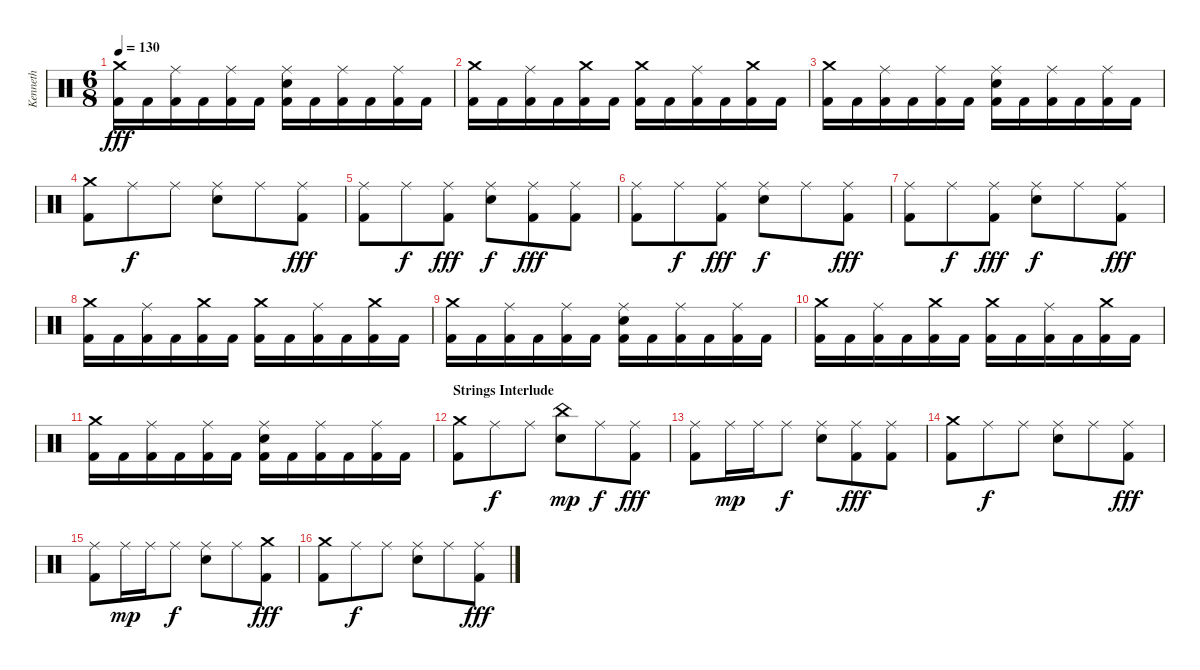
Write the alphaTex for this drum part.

\track ("Kenneth" "Kenneth") {instrument percussion}
\staff {score}
\articulation defaults
\ts (6 8)
\tempo 130
\clef neutral
\ks c
("Crash medium (hit)" "Kick (hit) 2").16{dy fff} "Kick (hit) 2".16 ("Ride (middle)" "Kick (hit) 2").16 "Kick (hit) 2".16 ("Ride (middle)" "Kick (hit) 2").16 "Kick (hit) 2".16 ("Ride (middle)" "Snare (hit) 2" "Kick (hit) 2").16 "Kick (hit) 2".16 ("Ride (middle)" "Kick (hit) 2").16 "Kick (hit) 2".16 ("Ride (middle)" "Kick (hit) 2").16 "Kick (hit) 2".16 |
("Crash medium (hit)" "Kick (hit) 2").16 "Kick (hit) 2".16 ("Ride (middle)" "Kick (hit) 2").16 "Kick (hit) 2".16 ("Crash medium (hit)" "Kick (hit) 2").16 "Kick (hit) 2".16 ("Crash medium (hit)" "Kick (hit) 2").16 "Kick (hit) 2".16 ("Ride (middle)" "Kick (hit) 2").16 "Kick (hit) 2".16 ("Crash medium (hit)" "Kick (hit) 2").16 "Kick (hit) 2".16 |
("Crash medium (hit)" "Kick (hit) 2").16 "Kick (hit) 2".16 ("Ride (middle)" "Kick (hit) 2").16 "Kick (hit) 2".16 ("Ride (middle)" "Kick (hit) 2").16 "Kick (hit) 2".16 ("Ride (middle)" "Snare (hit) 2" "Kick (hit) 2").16 "Kick (hit) 2".16 ("Ride (middle)" "Kick (hit) 2").16 "Kick (hit) 2".16 ("Ride (middle)" "Kick (hit) 2").16 "Kick (hit) 2".16 |
("Crash medium (hit)" "Kick (hit) 2").8 "Ride (middle)".8{dy f} "Ride (middle)".8 ("Ride (middle)" "Electric Snare (hit)").8 "Ride (middle)".8 ("Ride (middle)" "Kick (hit) 2").8{dy fff} |
("Ride (middle)" "Kick (hit) 2").8 "Ride (middle)".8{dy f} ("Ride (middle)" "Kick (hit) 2").8{dy fff} ("Ride (middle)" "Electric Snare (hit)").8{dy f} ("Ride (middle)" "Kick (hit) 2").8{dy fff} ("Ride (middle)" "Kick (hit) 2").8 |
("Ride (middle)" "Kick (hit) 2").8 "Ride (middle)".8{dy f} ("Ride (middle)" "Kick (hit) 2").8{dy fff} ("Ride (middle)" "Electric Snare (hit)").8{dy f} "Ride (middle)".8 ("Ride (middle)" "Kick (hit) 2").8{dy fff} |
("Ride (middle)" "Kick (hit) 2").8 "Ride (middle)".8{dy f} ("Ride (middle)" "Kick (hit) 2").8{dy fff} ("Ride (middle)" "Electric Snare (hit)").8{dy f} "Ride (middle)".8 ("Ride (middle)" "Kick (hit) 2").8{dy fff} |
("Crash medium (hit)" "Kick (hit) 2").16 "Kick (hit) 2".16 ("Ride (middle)" "Kick (hit) 2").16 "Kick (hit) 2".16 ("Crash medium (hit)" "Kick (hit) 2").16 "Kick (hit) 2".16 ("Crash medium (hit)" "Kick (hit) 2").16 "Kick (hit) 2".16 ("Ride (middle)" "Kick (hit) 2").16 "Kick (hit) 2".16 ("Crash medium (hit)" "Kick (hit) 2").16 "Kick (hit) 2".16 |
("Crash medium (hit)" "Kick (hit) 2").16 "Kick (hit) 2".16 ("Ride (middle)" "Kick (hit) 2").16 "Kick (hit) 2".16 ("Ride (middle)" "Kick (hit) 2").16 "Kick (hit) 2".16 ("Ride (middle)" "Snare (hit) 2" "Kick (hit) 2").16 "Kick (hit) 2".16 ("Ride (middle)" "Kick (hit) 2").16 "Kick (hit) 2".16 ("Ride (middle)" "Kick (hit) 2").16 "Kick (hit) 2".16 |
("Crash medium (hit)" "Kick (hit) 2").16 "Kick (hit) 2".16 ("Ride (middle)" "Kick (hit) 2").16 "Kick (hit) 2".16 ("Crash medium (hit)" "Kick (hit) 2").16 "Kick (hit) 2".16 ("Crash medium (hit)" "Kick (hit) 2").16 "Kick (hit) 2".16 ("Ride (middle)" "Kick (hit) 2").16 "Kick (hit) 2".16 ("Crash medium (hit)" "Kick (hit) 2").16 "Kick (hit) 2".16 |
("Crash medium (hit)" "Kick (hit) 2").16 "Kick (hit) 2".16 ("Ride (middle)" "Kick (hit) 2").16 "Kick (hit) 2".16 ("Ride (middle)" "Kick (hit) 2").16 "Kick (hit) 2".16 ("Ride (middle)" "Snare (hit) 2" "Kick (hit) 2").16 "Kick (hit) 2".16 ("Ride (middle)" "Kick (hit) 2").16 "Kick (hit) 2".16 ("Ride (middle)" "Kick (hit) 2").16 "Kick (hit) 2".16 |
\section ("" "Strings Interlude")
("Crash medium (hit)" "Kick (hit) 2").8 "Ride (middle)".8{dy f} "Ride (middle)".8 ("China (hit)" "Electric Snare (hit)").8{dy mp} "Ride (middle)".8{dy f} ("Ride (middle)" "Kick (hit) 2").8{dy fff} |
("Ride (middle)" "Kick (hit) 2").8 "Ride (middle)".16{dy mp} "Ride (middle)".16 "Ride (middle)".8{dy f} ("Ride (middle)" "Electric Snare (hit)").8 ("Ride (middle)" "Kick (hit) 2").8{dy fff} ("Ride (middle)" "Kick (hit) 2").8 |
("Crash medium (hit)" "Kick (hit) 2").8 "Ride (middle)".8{dy f} "Ride (middle)".8 ("Ride (middle)" "Electric Snare (hit)").8 "Ride (middle)".8 ("Ride (middle)" "Kick (hit) 2").8{dy fff} |
("Ride (middle)" "Kick (hit) 2").8 "Ride (middle)".16{dy mp} "Ride (middle)".16 "Ride (middle)".8{dy f} ("Ride (middle)" "Electric Snare (hit)").8 "Ride (middle)".8 ("Crash medium (hit)" "Kick (hit) 2").8{dy fff} |
("Crash medium (hit)" "Kick (hit) 2").8 "Ride (middle)".8{dy f} "Ride (middle)".8 ("Ride (middle)" "Electric Snare (hit)").8 "Ride (middle)".8 ("Ride (middle)" "Kick (hit) 2").8{dy fff}
